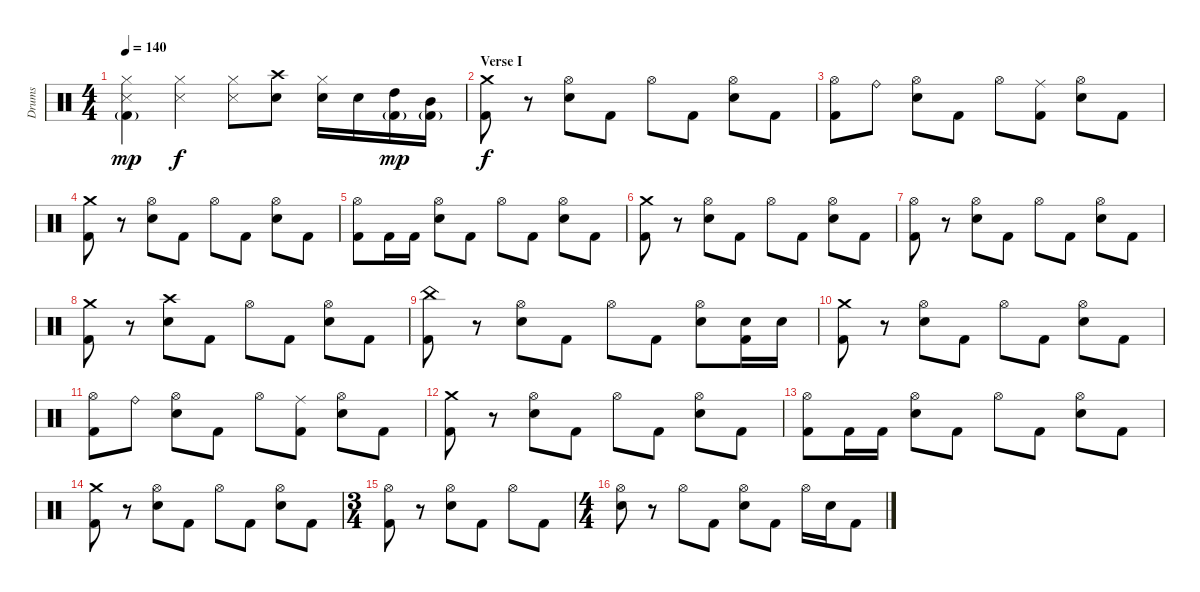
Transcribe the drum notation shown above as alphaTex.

\track ("Drums" "Drums") {instrument percussion}
\staff {score}
\articulation defaults
\ts (4 4)
\tempo 140
\clef neutral
\ks c
("Hi-Hat (closed)" "Snare (side stick) 3" "Kick (hit) 2"{g}).4{dy mp} ("Hi-Hat (closed)" "Snare (side stick) 3").4{dy f} ("Hi-Hat (closed)" "Snare (side stick) 3").8 ("Crash high (hit)" "Electric Snare (hit)").8 ("Hi-Hat (closed)" "Electric Snare (hit)").16 "Electric Snare (hit)".16 ("High Tom (hit)" "Kick (hit) 2"{g}).16{dy mp} ("Mid Tom (hit)" "Kick (hit) 2"{g}).16 |
\section ("" "Verse I")
("Crash medium (hit)" "Kick (hit) 2").8{dy f} r.8 ("Hi-Hat (open)" "Electric Snare (hit)").8 "Kick (hit) 2".8 "Hi-Hat (open)".8 "Kick (hit) 2".8 ("Hi-Hat (open)" "Electric Snare (hit)").8 "Kick (hit) 2".8 |
("Hi-Hat (open)" "Kick (hit) 2").8 "Ride (bell)".8 ("Hi-Hat (open)" "Electric Snare (hit)").8 "Kick (hit) 2".8 "Hi-Hat (open)".8 ("Ride (middle)" "Kick (hit) 2").8 ("Hi-Hat (open)" "Electric Snare (hit)").8 "Kick (hit) 2".8 |
("Crash medium (hit)" "Kick (hit) 2").8 r.8 ("Hi-Hat (open)" "Electric Snare (hit)").8 "Kick (hit) 2".8 "Hi-Hat (open)".8 "Kick (hit) 2".8 ("Hi-Hat (open)" "Electric Snare (hit)").8 "Kick (hit) 2".8 |
("Hi-Hat (open)" "Kick (hit) 2").8 "Kick (hit) 2".16 "Kick (hit) 2".16 ("Hi-Hat (open)" "Electric Snare (hit)").8 "Kick (hit) 2".8 "Hi-Hat (open)".8 "Kick (hit) 2".8 ("Hi-Hat (open)" "Electric Snare (hit)").8 "Kick (hit) 2".8 |
("Crash medium (hit)" "Kick (hit) 2").8 r.8 ("Hi-Hat (open)" "Electric Snare (hit)").8 "Kick (hit) 2".8 "Hi-Hat (open)".8 "Kick (hit) 2".8 ("Hi-Hat (open)" "Electric Snare (hit)").8 "Kick (hit) 2".8 |
("Hi-Hat (open)" "Kick (hit) 2").8 r.8 ("Hi-Hat (open)" "Electric Snare (hit)").8 "Kick (hit) 2".8 "Hi-Hat (open)".8 "Kick (hit) 2".8 ("Hi-Hat (open)" "Electric Snare (hit)").8 "Kick (hit) 2".8 |
("Crash medium (hit)" "Kick (hit) 2").8 r.8 ("Crash high (hit)" "Electric Snare (hit)").8 "Kick (hit) 2".8 "Hi-Hat (open)".8 "Kick (hit) 2".8 ("Hi-Hat (open)" "Electric Snare (hit)").8 "Kick (hit) 2".8 |
("China (hit)" "Kick (hit) 2").8 r.8 ("Hi-Hat (open)" "Electric Snare (hit)").8 "Kick (hit) 2".8 "Hi-Hat (open)".8 "Kick (hit) 2".8 ("Hi-Hat (open)" "Electric Snare (hit)").8 ("Electric Snare (hit)" "Kick (hit) 2").16 "Electric Snare (hit)".16 |
("Crash medium (hit)" "Kick (hit) 2").8 r.8 ("Hi-Hat (open)" "Electric Snare (hit)").8 "Kick (hit) 2".8 "Hi-Hat (open)".8 "Kick (hit) 2".8 ("Hi-Hat (open)" "Electric Snare (hit)").8 "Kick (hit) 2".8 |
("Hi-Hat (open)" "Kick (hit) 2").8 "Ride (bell)".8 ("Hi-Hat (open)" "Electric Snare (hit)").8 "Kick (hit) 2".8 "Hi-Hat (open)".8 ("Ride (middle)" "Kick (hit) 2").8 ("Hi-Hat (open)" "Electric Snare (hit)").8 "Kick (hit) 2".8 |
("Crash medium (hit)" "Kick (hit) 2").8 r.8 ("Hi-Hat (open)" "Electric Snare (hit)").8 "Kick (hit) 2".8 "Hi-Hat (open)".8 "Kick (hit) 2".8 ("Hi-Hat (open)" "Electric Snare (hit)").8 "Kick (hit) 2".8 |
("Hi-Hat (open)" "Kick (hit) 2").8 "Kick (hit) 2".16 "Kick (hit) 2".16 ("Hi-Hat (open)" "Electric Snare (hit)").8 "Kick (hit) 2".8 "Hi-Hat (open)".8 "Kick (hit) 2".8 ("Hi-Hat (open)" "Electric Snare (hit)").8 "Kick (hit) 2".8 |
("Crash medium (hit)" "Kick (hit) 2").8 r.8 ("Hi-Hat (open)" "Electric Snare (hit)").8 "Kick (hit) 2".8 "Hi-Hat (open)".8 "Kick (hit) 2".8 ("Hi-Hat (open)" "Electric Snare (hit)").8 "Kick (hit) 2".8 |
\ts (3 4)
("Hi-Hat (open)" "Kick (hit) 2").8 r.8 ("Hi-Hat (open)" "Electric Snare (hit)").8 "Kick (hit) 2".8 "Hi-Hat (open)".8 "Kick (hit) 2".8 |
\ts (4 4)
("Hi-Hat (open)" "Electric Snare (hit)").8 r.8 "Hi-Hat (open)".8 "Kick (hit) 2".8 ("Hi-Hat (open)" "Electric Snare (hit)").8 "Kick (hit) 2".8 "Hi-Hat (open)".16 "Electric Snare (hit)".16 "Kick (hit) 2".8
